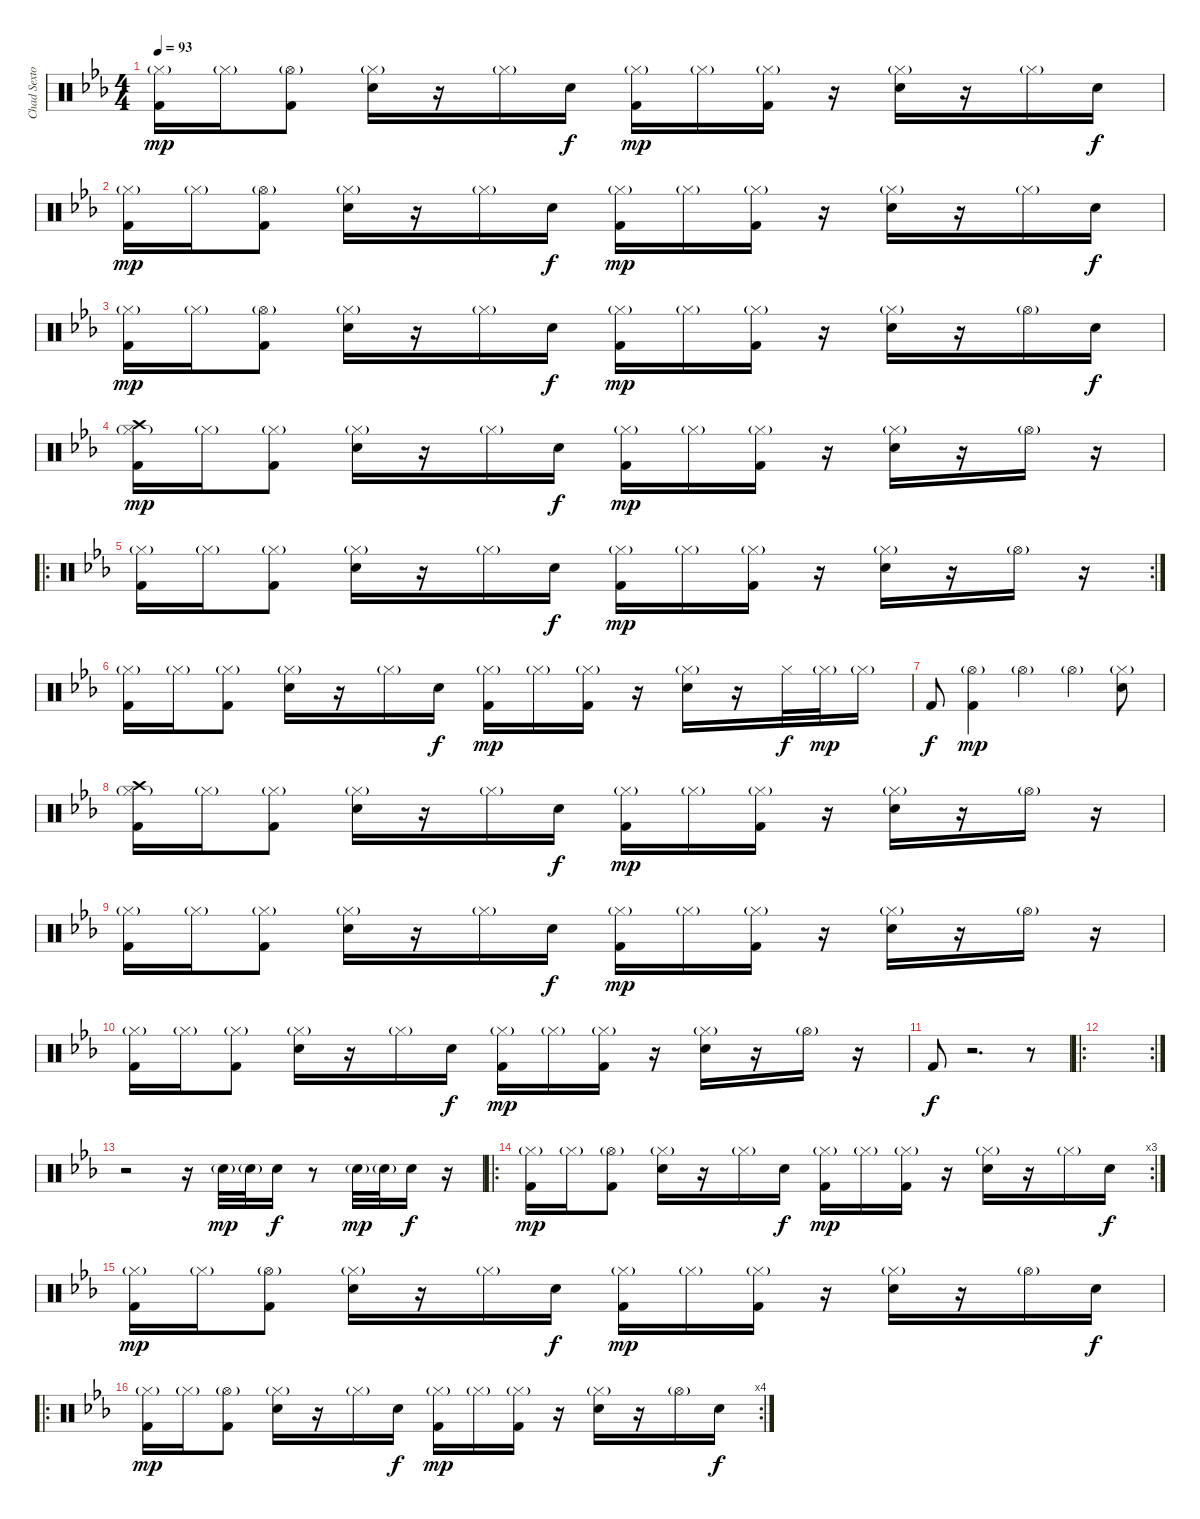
\track ("Chad Sexton (Drums)" "Chad Sexto") {instrument percussion}
\staff {score}
\articulation defaults
\ts (4 4)
\tempo 93
\clef neutral
\ks eb
("Hi-Hat (closed)"{g} "Kick (hit) 2").16{dy mp} "Hi-Hat (closed)"{g}.16 ("Hi-Hat (open)"{g} "Kick (hit) 2").8 ("Hi-Hat (closed)"{g} "Snare (hit) 2").16 r.16 "Hi-Hat (closed)"{g}.16 "Snare (hit) 2".16{dy f} ("Hi-Hat (closed)"{g} "Kick (hit) 2").16{dy mp} "Hi-Hat (closed)"{g}.16 ("Hi-Hat (closed)"{g} "Kick (hit) 2").16 r.16 ("Hi-Hat (closed)"{g} "Snare (hit) 2").16 r.16 "Hi-Hat (closed)"{g}.16 "Snare (hit) 2".16{dy f} |
("Hi-Hat (closed)"{g} "Kick (hit) 2").16{dy mp} "Hi-Hat (closed)"{g}.16 ("Hi-Hat (open)"{g} "Kick (hit) 2").8 ("Hi-Hat (closed)"{g} "Snare (hit) 2").16 r.16 "Hi-Hat (closed)"{g}.16 "Snare (hit) 2".16{dy f} ("Hi-Hat (closed)"{g} "Kick (hit) 2").16{dy mp} "Hi-Hat (closed)"{g}.16 ("Hi-Hat (closed)"{g} "Kick (hit) 2").16 r.16 ("Hi-Hat (closed)"{g} "Snare (hit) 2").16 r.16 "Hi-Hat (closed)"{g}.16 "Snare (hit) 2".16{dy f} |
("Hi-Hat (closed)"{g} "Kick (hit) 2").16{dy mp} "Hi-Hat (closed)"{g}.16 ("Hi-Hat (open)"{g} "Kick (hit) 2").8 ("Hi-Hat (closed)"{g} "Snare (hit) 2").16 r.16 "Hi-Hat (closed)"{g}.16 "Snare (hit) 2".16{dy f} ("Hi-Hat (closed)"{g} "Kick (hit) 2").16{dy mp} "Hi-Hat (closed)"{g}.16 ("Hi-Hat (closed)"{g} "Kick (hit) 2").16 r.16 ("Hi-Hat (closed)"{g} "Snare (hit) 2").16 r.16 "Hi-Hat (open)"{g}.16 "Snare (hit) 2".16{dy f} |
("Crash high (hit)" "Hi-Hat (closed)"{g} "Kick (hit) 2").16{dy mp} "Hi-Hat (closed)"{g}.16 ("Hi-Hat (closed)"{g} "Kick (hit) 2").8 ("Hi-Hat (closed)"{g} "Snare (hit) 2").16 r.16 "Hi-Hat (closed)"{g}.16 "Snare (hit) 2".16{dy f} ("Hi-Hat (closed)"{g} "Kick (hit) 2").16{dy mp} "Hi-Hat (closed)"{g}.16 ("Hi-Hat (closed)"{g} "Kick (hit) 2").16 r.16 ("Hi-Hat (closed)"{g} "Snare (hit) 2").16 r.16 "Hi-Hat (open)"{g}.16 r.16 |
\ro
\rc 2
("Hi-Hat (closed)"{g} "Kick (hit) 2").16 "Hi-Hat (closed)"{g}.16 ("Hi-Hat (closed)"{g} "Kick (hit) 2").8 ("Hi-Hat (closed)"{g} "Snare (hit) 2").16 r.16 "Hi-Hat (closed)"{g}.16 "Snare (hit) 2".16{dy f} ("Hi-Hat (closed)"{g} "Kick (hit) 2").16{dy mp} "Hi-Hat (closed)"{g}.16 ("Hi-Hat (closed)"{g} "Kick (hit) 2").16 r.16 ("Hi-Hat (closed)"{g} "Snare (hit) 2").16 r.16 "Hi-Hat (open)"{g}.16 r.16 |
("Hi-Hat (closed)"{g} "Kick (hit) 2").16 "Hi-Hat (closed)"{g}.16 ("Hi-Hat (closed)"{g} "Kick (hit) 2").8 ("Hi-Hat (closed)"{g} "Snare (hit) 2").16 r.16 "Hi-Hat (closed)"{g}.16 "Snare (hit) 2".16{dy f} ("Hi-Hat (closed)"{g} "Kick (hit) 2").16{dy mp} "Hi-Hat (closed)"{g}.16 ("Hi-Hat (closed)"{g} "Kick (hit) 2").16 r.16 ("Hi-Hat (closed)"{g} "Snare (hit) 2").16 r.16 "Hi-Hat (closed)".32{dy f} "Hi-Hat (closed)"{g}.32{dy mp} "Hi-Hat (closed)"{g}.16 |
"Kick (hit) 2".8{dy f} ("Hi-Hat (open)"{g} "Kick (hit) 2").4{dy mp} "Hi-Hat (open)"{g}.4 "Hi-Hat (open)"{g}.4 ("Hi-Hat (closed)"{g} "Snare (hit) 2").8 |
("Crash high (hit)" "Hi-Hat (closed)"{g} "Kick (hit) 2").16 "Hi-Hat (closed)"{g}.16 ("Hi-Hat (closed)"{g} "Kick (hit) 2").8 ("Hi-Hat (closed)"{g} "Snare (hit) 2").16 r.16 "Hi-Hat (closed)"{g}.16 "Snare (hit) 2".16{dy f} ("Hi-Hat (closed)"{g} "Kick (hit) 2").16{dy mp} "Hi-Hat (closed)"{g}.16 ("Hi-Hat (closed)"{g} "Kick (hit) 2").16 r.16 ("Hi-Hat (closed)"{g} "Snare (hit) 2").16 r.16 "Hi-Hat (open)"{g}.16 r.16 |
("Hi-Hat (closed)"{g} "Kick (hit) 2").16 "Hi-Hat (closed)"{g}.16 ("Hi-Hat (closed)"{g} "Kick (hit) 2").8 ("Hi-Hat (closed)"{g} "Snare (hit) 2").16 r.16 "Hi-Hat (closed)"{g}.16 "Snare (hit) 2".16{dy f} ("Hi-Hat (closed)"{g} "Kick (hit) 2").16{dy mp} "Hi-Hat (closed)"{g}.16 ("Hi-Hat (closed)"{g} "Kick (hit) 2").16 r.16 ("Hi-Hat (closed)"{g} "Snare (hit) 2").16 r.16 "Hi-Hat (open)"{g}.16 r.16 |
("Hi-Hat (closed)"{g} "Kick (hit) 2").16 "Hi-Hat (closed)"{g}.16 ("Hi-Hat (closed)"{g} "Kick (hit) 2").8 ("Hi-Hat (closed)"{g} "Snare (hit) 2").16 r.16 "Hi-Hat (closed)"{g}.16 "Snare (hit) 2".16{dy f} ("Hi-Hat (closed)"{g} "Kick (hit) 2").16{dy mp} "Hi-Hat (closed)"{g}.16 ("Hi-Hat (closed)"{g} "Kick (hit) 2").16 r.16 ("Hi-Hat (closed)"{g} "Snare (hit) 2").16 r.16 "Hi-Hat (open)"{g}.16 r.16 |
"Kick (hit) 2".8{dy f} r.2{d} r.8 |
\ro
\rc 2
|
r.2 r.16 "Snare (hit) 2"{g}.32{dy mp} "Snare (hit) 2"{g}.32 "Snare (hit) 2".16{dy f} r.8 "Snare (hit) 2"{g}.32{dy mp} "Snare (hit) 2"{g}.32 "Snare (hit) 2".16{dy f} r.16 |
\ro
\rc 3
("Hi-Hat (closed)"{g} "Kick (hit) 2").16{dy mp} "Hi-Hat (closed)"{g}.16 ("Hi-Hat (open)"{g} "Kick (hit) 2").8 ("Hi-Hat (closed)"{g} "Snare (hit) 2").16 r.16 "Hi-Hat (closed)"{g}.16 "Snare (hit) 2".16{dy f} ("Hi-Hat (closed)"{g} "Kick (hit) 2").16{dy mp} "Hi-Hat (closed)"{g}.16 ("Hi-Hat (closed)"{g} "Kick (hit) 2").16 r.16 ("Hi-Hat (closed)"{g} "Snare (hit) 2").16 r.16 "Hi-Hat (closed)"{g}.16 "Snare (hit) 2".16{dy f} |
("Hi-Hat (closed)"{g} "Kick (hit) 2").16{dy mp} "Hi-Hat (closed)"{g}.16 ("Hi-Hat (open)"{g} "Kick (hit) 2").8 ("Hi-Hat (closed)"{g} "Snare (hit) 2").16 r.16 "Hi-Hat (closed)"{g}.16 "Snare (hit) 2".16{dy f} ("Hi-Hat (closed)"{g} "Kick (hit) 2").16{dy mp} "Hi-Hat (closed)"{g}.16 ("Hi-Hat (closed)"{g} "Kick (hit) 2").16 r.16 ("Hi-Hat (closed)"{g} "Snare (hit) 2").16 r.16 "Hi-Hat (open)"{g}.16 "Snare (hit) 2".16{dy f} |
\ro
\rc 4
("Hi-Hat (closed)"{g} "Kick (hit) 2").16{dy mp} "Hi-Hat (closed)"{g}.16 ("Hi-Hat (open)"{g} "Kick (hit) 2").8 ("Hi-Hat (closed)"{g} "Snare (hit) 2").16 r.16 "Hi-Hat (closed)"{g}.16 "Snare (hit) 2".16{dy f} ("Hi-Hat (closed)"{g} "Kick (hit) 2").16{dy mp} "Hi-Hat (closed)"{g}.16 ("Hi-Hat (closed)"{g} "Kick (hit) 2").16 r.16 ("Hi-Hat (closed)"{g} "Snare (hit) 2").16 r.16 "Hi-Hat (open)"{g}.16 "Snare (hit) 2".16{dy f}
